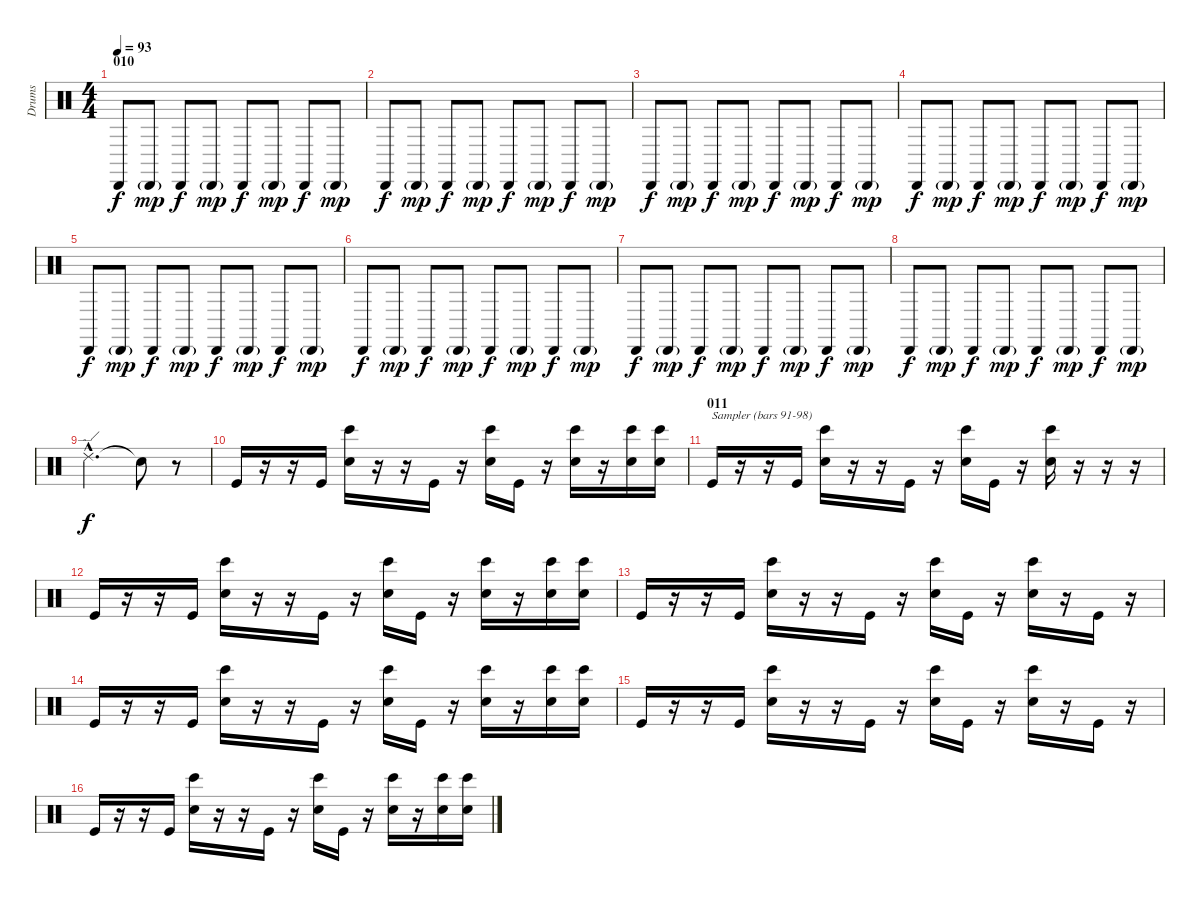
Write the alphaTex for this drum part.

\track ("Drums" "Drums") {instrument percussion}
\staff {score}
\articulation defaults
\ts (4 4)
\section ("" "010")
\tempo 93
\clef neutral
\ks c "Cabasa (hit)".8{dy f} "Cabasa (hit)"{g}.8{dy mp} "Cabasa (hit)".8{dy f} "Cabasa (hit)"{g}.8{dy mp} "Cabasa (hit)".8{dy f} "Cabasa (hit)"{g}.8{dy mp} "Cabasa (hit)".8{dy f} "Cabasa (hit)"{g}.8{dy mp}
|
"Cabasa (hit)".8{dy f} "Cabasa (hit)"{g}.8{dy mp} "Cabasa (hit)".8{dy f} "Cabasa (hit)"{g}.8{dy mp} "Cabasa (hit)".8{dy f} "Cabasa (hit)"{g}.8{dy mp} "Cabasa (hit)".8{dy f} "Cabasa (hit)"{g}.8{dy mp} |
"Cabasa (hit)".8{dy f} "Cabasa (hit)"{g}.8{dy mp} "Cabasa (hit)".8{dy f} "Cabasa (hit)"{g}.8{dy mp} "Cabasa (hit)".8{dy f} "Cabasa (hit)"{g}.8{dy mp} "Cabasa (hit)".8{dy f} "Cabasa (hit)"{g}.8{dy mp} |
"Cabasa (hit)".8{dy f} "Cabasa (hit)"{g}.8{dy mp} "Cabasa (hit)".8{dy f} "Cabasa (hit)"{g}.8{dy mp} "Cabasa (hit)".8{dy f} "Cabasa (hit)"{g}.8{dy mp} "Cabasa (hit)".8{dy f} "Cabasa (hit)"{g}.8{dy mp} |
"Cabasa (hit)".8{dy f} "Cabasa (hit)"{g}.8{dy mp} "Cabasa (hit)".8{dy f} "Cabasa (hit)"{g}.8{dy mp} "Cabasa (hit)".8{dy f} "Cabasa (hit)"{g}.8{dy mp} "Cabasa (hit)".8{dy f} "Cabasa (hit)"{g}.8{dy mp} |
"Cabasa (hit)".8{dy f} "Cabasa (hit)"{g}.8{dy mp} "Cabasa (hit)".8{dy f} "Cabasa (hit)"{g}.8{dy mp} "Cabasa (hit)".8{dy f} "Cabasa (hit)"{g}.8{dy mp} "Cabasa (hit)".8{dy f} "Cabasa (hit)"{g}.8{dy mp} |
"Cabasa (hit)".8{dy f} "Cabasa (hit)"{g}.8{dy mp} "Cabasa (hit)".8{dy f} "Cabasa (hit)"{g}.8{dy mp} "Cabasa (hit)".8{dy f} "Cabasa (hit)"{g}.8{dy mp} "Cabasa (hit)".8{dy f} "Cabasa (hit)"{g}.8{dy mp} |
"Cabasa (hit)".8{dy f} "Cabasa (hit)"{g}.8{dy mp} "Cabasa (hit)".8{dy f} "Cabasa (hit)"{g}.8{dy mp} "Cabasa (hit)".8{dy f} "Cabasa (hit)"{g}.8{dy mp} "Cabasa (hit)".8{dy f} "Cabasa (hit)"{g}.8{dy mp} |
"Ride (edge) 2"{hac}.2{d dy f} "Snare (hit)"{t}.8 r.8{volume 0} |
"Kick (hit)".16{volume 13} r.16 r.16 "Kick (hit)".16 ("Hand Clap (hit)" "Bongo High (hit)").16 r.16 r.16 "Kick (hit)".16 r.16 ("Hand Clap (hit)" "Bongo High (hit)").16 "Kick (hit)".16 r.16 ("Hand Clap (hit)" "Bongo High (hit)").16 r.16 ("Hand Clap (hit)" "Bongo High (hit)").16 ("Hand Clap (hit)" "Bongo High (hit)").16 |
\section ("" "011")
"Kick (hit)".16{txt "Sampler (bars 91-98)" volume 13} r.16 r.16 "Kick (hit)".16 ("Hand Clap (hit)" "Bongo High (hit)").16 r.16 r.16 "Kick (hit)".16 r.16 ("Hand Clap (hit)" "Bongo High (hit)").16 "Kick (hit)".16 r.16 ("Hand Clap (hit)" "Bongo High (hit)").16 r.16 r.16 r.16 |
"Kick (hit)".16 r.16 r.16 "Kick (hit)".16 ("Hand Clap (hit)" "Bongo High (hit)").16 r.16 r.16 "Kick (hit)".16 r.16 ("Hand Clap (hit)" "Bongo High (hit)").16 "Kick (hit)".16 r.16 ("Hand Clap (hit)" "Bongo High (hit)").16 r.16 ("Hand Clap (hit)" "Bongo High (hit)").16 ("Hand Clap (hit)" "Bongo High (hit)").16 |
"Kick (hit)".16 r.16 r.16 "Kick (hit)".16 ("Hand Clap (hit)" "Bongo High (hit)").16 r.16 r.16 "Kick (hit)".16 r.16 ("Hand Clap (hit)" "Bongo High (hit)").16 "Kick (hit)".16 r.16 ("Hand Clap (hit)" "Bongo High (hit)").16 r.16 "Kick (hit)".16 r.16 |
"Kick (hit)".16 r.16 r.16 "Kick (hit)".16 ("Hand Clap (hit)" "Bongo High (hit)").16 r.16 r.16 "Kick (hit)".16 r.16 ("Hand Clap (hit)" "Bongo High (hit)").16 "Kick (hit)".16 r.16 ("Hand Clap (hit)" "Bongo High (hit)").16 r.16 ("Hand Clap (hit)" "Bongo High (hit)").16 ("Hand Clap (hit)" "Bongo High (hit)").16 |
"Kick (hit)".16 r.16 r.16 "Kick (hit)".16 ("Hand Clap (hit)" "Bongo High (hit)").16 r.16 r.16 "Kick (hit)".16 r.16 ("Hand Clap (hit)" "Bongo High (hit)").16 "Kick (hit)".16 r.16 ("Hand Clap (hit)" "Bongo High (hit)").16 r.16 "Kick (hit)".16 r.16 |
"Kick (hit)".16 r.16 r.16 "Kick (hit)".16 ("Hand Clap (hit)" "Bongo High (hit)").16 r.16 r.16 "Kick (hit)".16 r.16 ("Hand Clap (hit)" "Bongo High (hit)").16 "Kick (hit)".16 r.16 ("Hand Clap (hit)" "Bongo High (hit)").16 r.16 ("Hand Clap (hit)" "Bongo High (hit)").16 ("Hand Clap (hit)" "Bongo High (hit)").16
